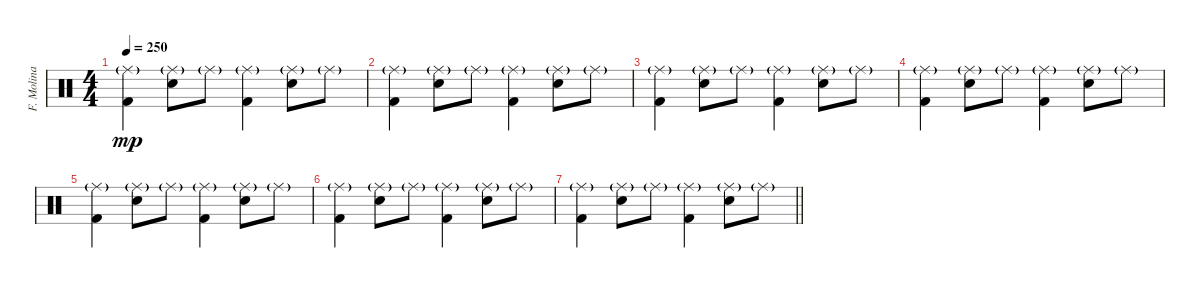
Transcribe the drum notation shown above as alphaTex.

\track ("F. Molina [Batería]" "F. Molina ") {instrument percussion}
\staff {score}
\articulation defaults
\ts (4 4)
\tempo 250
\clef neutral
\ks c
("Ride (middle)"{g} "Kick (hit) 2").4{dy mp} ("Ride (middle)"{g} "Electric Snare (hit)").8 "Ride (middle)"{g}.8 ("Ride (middle)"{g} "Kick (hit) 2").4 ("Ride (middle)"{g} "Electric Snare (hit)").8 "Ride (middle)"{g}.8 |
("Ride (middle)"{g} "Kick (hit) 2").4 ("Ride (middle)"{g} "Electric Snare (hit)").8 "Ride (middle)"{g}.8 ("Ride (middle)"{g} "Kick (hit) 2").4 ("Ride (middle)"{g} "Electric Snare (hit)").8 "Ride (middle)"{g}.8 |
("Ride (middle)"{g} "Kick (hit) 2").4 ("Ride (middle)"{g} "Electric Snare (hit)").8 "Ride (middle)"{g}.8 ("Ride (middle)"{g} "Kick (hit) 2").4 ("Ride (middle)"{g} "Electric Snare (hit)").8 "Ride (middle)"{g}.8 |
("Ride (middle)"{g} "Kick (hit) 2").4 ("Ride (middle)"{g} "Electric Snare (hit)").8 "Ride (middle)"{g}.8 ("Ride (middle)"{g} "Kick (hit) 2").4 ("Ride (middle)"{g} "Electric Snare (hit)").8 "Ride (middle)"{g}.8 |
("Ride (middle)"{g} "Kick (hit) 2").4 ("Ride (middle)"{g} "Electric Snare (hit)").8 "Ride (middle)"{g}.8 ("Ride (middle)"{g} "Kick (hit) 2").4 ("Ride (middle)"{g} "Electric Snare (hit)").8 "Ride (middle)"{g}.8 |
("Ride (middle)"{g} "Kick (hit) 2").4 ("Ride (middle)"{g} "Electric Snare (hit)").8 "Ride (middle)"{g}.8 ("Ride (middle)"{g} "Kick (hit) 2").4 ("Ride (middle)"{g} "Electric Snare (hit)").8 "Ride (middle)"{g}.8 |
\barLineRight lightlight
("Ride (middle)"{g} "Kick (hit) 2").4 ("Ride (middle)"{g} "Electric Snare (hit)").8 "Ride (middle)"{g}.8 ("Ride (middle)"{g} "Kick (hit) 2").4 ("Ride (middle)"{g} "Electric Snare (hit)").8 "Ride (middle)"{g}.8
